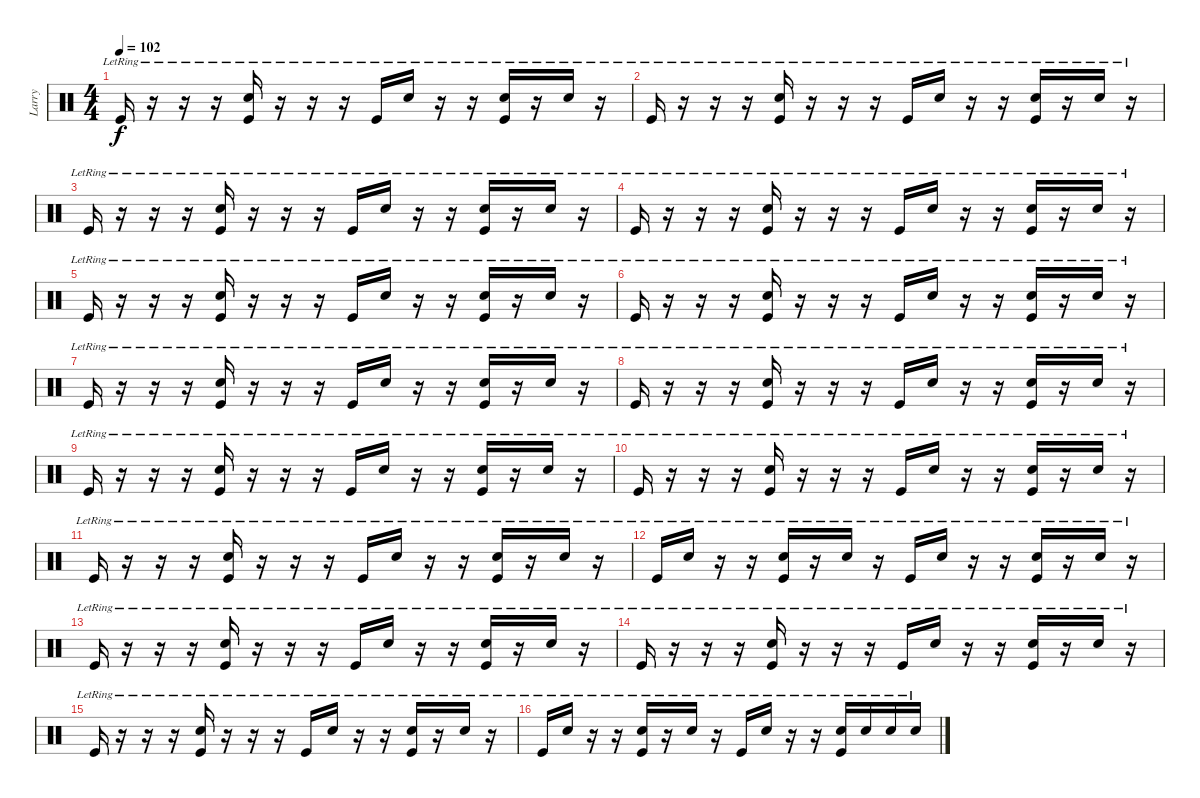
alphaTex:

\track ("Larry" "Larry") {instrument percussion}
\staff {score}
\articulation defaults
\ts (4 4)
\tempo 102
\clef neutral
\ks c "Kick (hit)"{lr}.16{dy f}
r.16 r.16 r.16 ("Snare (hit) 2"{lr} "Kick (hit)"{lr}).16 r.16 r.16 r.16 "Kick (hit)"{lr}.16 "Snare (hit) 2"{lr}.16 r.16 r.16 ("Snare (hit) 2"{lr} "Kick (hit)"{lr}).16 r.16 "Snare (hit) 2"{lr}.16 r.16 |
"Kick (hit)"{lr}.16 r.16 r.16 r.16 ("Snare (hit) 2"{lr} "Kick (hit)"{lr}).16 r.16 r.16 r.16 "Kick (hit)"{lr}.16 "Snare (hit) 2"{lr}.16 r.16 r.16 ("Snare (hit) 2"{lr} "Kick (hit)"{lr}).16 r.16 "Snare (hit) 2"{lr}.16 r.16 |
"Kick (hit)"{lr}.16 r.16 r.16 r.16 ("Snare (hit) 2"{lr} "Kick (hit)"{lr}).16 r.16 r.16 r.16 "Kick (hit)"{lr}.16 "Snare (hit) 2"{lr}.16 r.16 r.16 ("Snare (hit) 2"{lr} "Kick (hit)"{lr}).16 r.16 "Snare (hit) 2"{lr}.16 r.16 |
"Kick (hit)"{lr}.16 r.16 r.16 r.16 ("Snare (hit) 2"{lr} "Kick (hit)"{lr}).16 r.16 r.16 r.16 "Kick (hit)"{lr}.16 "Snare (hit) 2"{lr}.16 r.16 r.16 ("Snare (hit) 2"{lr} "Kick (hit)"{lr}).16 r.16 "Snare (hit) 2"{lr}.16 r.16 |
"Kick (hit)"{lr}.16 r.16 r.16 r.16 ("Snare (hit) 2"{lr} "Kick (hit)"{lr}).16 r.16 r.16 r.16 "Kick (hit)"{lr}.16 "Snare (hit) 2"{lr}.16 r.16 r.16 ("Snare (hit) 2"{lr} "Kick (hit)"{lr}).16 r.16 "Snare (hit) 2"{lr}.16 r.16 |
"Kick (hit)"{lr}.16 r.16 r.16 r.16 ("Snare (hit) 2"{lr} "Kick (hit)"{lr}).16 r.16 r.16 r.16 "Kick (hit)"{lr}.16 "Snare (hit) 2"{lr}.16 r.16 r.16 ("Snare (hit) 2"{lr} "Kick (hit)"{lr}).16 r.16 "Snare (hit) 2"{lr}.16 r.16 |
"Kick (hit)"{lr}.16 r.16 r.16 r.16 ("Snare (hit) 2"{lr} "Kick (hit)"{lr}).16 r.16 r.16 r.16 "Kick (hit)"{lr}.16 "Snare (hit) 2"{lr}.16 r.16 r.16 ("Snare (hit) 2"{lr} "Kick (hit)"{lr}).16 r.16 "Snare (hit) 2"{lr}.16 r.16 |
"Kick (hit)"{lr}.16 r.16 r.16 r.16 ("Snare (hit) 2"{lr} "Kick (hit)"{lr}).16 r.16 r.16 r.16 "Kick (hit)"{lr}.16 "Snare (hit) 2"{lr}.16 r.16 r.16 ("Snare (hit) 2"{lr} "Kick (hit)"{lr}).16 r.16 "Snare (hit) 2"{lr}.16 r.16 |
"Kick (hit)"{lr}.16 r.16 r.16 r.16 ("Snare (hit) 2"{lr} "Kick (hit)"{lr}).16 r.16 r.16 r.16 "Kick (hit)"{lr}.16 "Snare (hit) 2"{lr}.16 r.16 r.16 ("Snare (hit) 2"{lr} "Kick (hit)"{lr}).16 r.16 "Snare (hit) 2"{lr}.16 r.16 |
"Kick (hit)"{lr}.16 r.16 r.16 r.16 ("Snare (hit) 2"{lr} "Kick (hit)"{lr}).16 r.16 r.16 r.16 "Kick (hit)"{lr}.16 "Snare (hit) 2"{lr}.16 r.16 r.16 ("Snare (hit) 2"{lr} "Kick (hit)"{lr}).16 r.16 "Snare (hit) 2"{lr}.16 r.16 |
"Kick (hit)"{lr}.16 r.16 r.16 r.16 ("Snare (hit) 2"{lr} "Kick (hit)"{lr}).16 r.16 r.16 r.16 "Kick (hit)"{lr}.16 "Snare (hit) 2"{lr}.16 r.16 r.16 ("Snare (hit) 2"{lr} "Kick (hit)"{lr}).16 r.16 "Snare (hit) 2"{lr}.16 r.16 |
"Kick (hit)"{lr}.16 "Snare (hit) 2"{lr}.16 r.16 r.16 ("Snare (hit) 2"{lr} "Kick (hit)"{lr}).16 r.16 "Snare (hit) 2"{lr}.16 r.16 "Kick (hit)"{lr}.16 "Snare (hit) 2"{lr}.16 r.16 r.16 ("Snare (hit) 2"{lr} "Kick (hit)"{lr}).16 r.16 "Snare (hit) 2"{lr}.16 r.16 |
"Kick (hit)"{lr}.16 r.16 r.16 r.16 ("Snare (hit) 2"{lr} "Kick (hit)"{lr}).16 r.16 r.16 r.16 "Kick (hit)"{lr}.16 "Snare (hit) 2"{lr}.16 r.16 r.16 ("Snare (hit) 2"{lr} "Kick (hit)"{lr}).16 r.16 "Snare (hit) 2"{lr}.16 r.16 |
"Kick (hit)"{lr}.16 r.16 r.16 r.16 ("Snare (hit) 2"{lr} "Kick (hit)"{lr}).16 r.16 r.16 r.16 "Kick (hit)"{lr}.16 "Snare (hit) 2"{lr}.16 r.16 r.16 ("Snare (hit) 2"{lr} "Kick (hit)"{lr}).16 r.16 "Snare (hit) 2"{lr}.16 r.16 |
"Kick (hit)"{lr}.16 r.16 r.16 r.16 ("Snare (hit) 2"{lr} "Kick (hit)"{lr}).16 r.16 r.16 r.16 "Kick (hit)"{lr}.16 "Snare (hit) 2"{lr}.16 r.16 r.16 ("Snare (hit) 2"{lr} "Kick (hit)"{lr}).16 r.16 "Snare (hit) 2"{lr}.16 r.16 |
"Kick (hit)"{lr}.16 "Snare (hit) 2"{lr}.16 r.16 r.16 ("Snare (hit) 2"{lr} "Kick (hit)"{lr}).16 r.16 "Snare (hit) 2"{lr}.16 r.16 "Kick (hit)"{lr}.16 "Snare (hit) 2"{lr}.16 r.16 r.16 ("Snare (hit) 2"{lr} "Kick (hit)"{lr}).16 "Snare (hit) 2"{lr}.16 "Snare (hit) 2"{lr}.16 "Snare (hit) 2"{lr}.16
